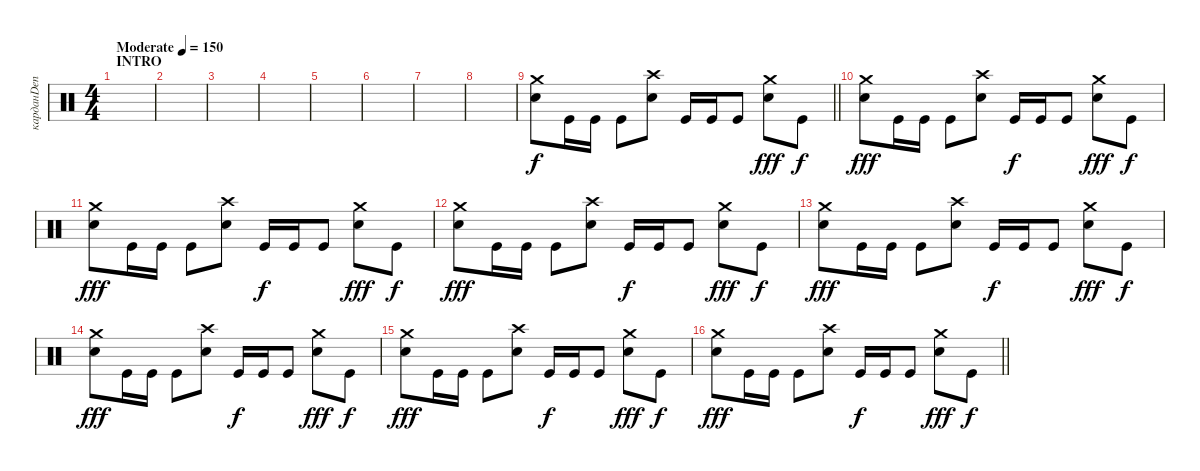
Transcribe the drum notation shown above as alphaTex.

\track ("карданDen" "карданDen") {instrument percussion}
\staff {score}
\articulation defaults
\ts (4 4)
\section ("" "INTRO")
\tempo (150 "Moderate")
\clef neutral
\ks c
|
|
|
|
|
|
|
|
\barLineRight lightlight
("Crash medium (hit)" "Electric Snare (hit)").8 "Kick (hit)".16 "Kick (hit)".16 "Kick (hit)".8 ("Crash high (hit)" "Electric Snare (hit)").8 "Kick (hit)".16{dy f} "Kick (hit)".16 "Kick (hit)".8 ("Crash medium (hit)" "Electric Snare (hit)").8{dy fff} "Kick (hit)".8{dy f} |
("Crash medium (hit)" "Electric Snare (hit)").8{dy fff} "Kick (hit)".16 "Kick (hit)".16 "Kick (hit)".8 ("Crash high (hit)" "Electric Snare (hit)").8 "Kick (hit)".16{dy f} "Kick (hit)".16 "Kick (hit)".8 ("Crash medium (hit)" "Electric Snare (hit)").8{dy fff} "Kick (hit)".8{dy f} |
("Crash medium (hit)" "Electric Snare (hit)").8{dy fff} "Kick (hit)".16 "Kick (hit)".16 "Kick (hit)".8 ("Crash high (hit)" "Electric Snare (hit)").8 "Kick (hit)".16{dy f} "Kick (hit)".16 "Kick (hit)".8 ("Crash medium (hit)" "Electric Snare (hit)").8{dy fff} "Kick (hit)".8{dy f} |
("Crash medium (hit)" "Electric Snare (hit)").8{dy fff} "Kick (hit)".16 "Kick (hit)".16 "Kick (hit)".8 ("Crash high (hit)" "Electric Snare (hit)").8 "Kick (hit)".16{dy f} "Kick (hit)".16 "Kick (hit)".8 ("Crash medium (hit)" "Electric Snare (hit)").8{dy fff} "Kick (hit)".8{dy f} |
("Crash medium (hit)" "Electric Snare (hit)").8{dy fff} "Kick (hit)".16 "Kick (hit)".16 "Kick (hit)".8 ("Crash high (hit)" "Electric Snare (hit)").8 "Kick (hit)".16{dy f} "Kick (hit)".16 "Kick (hit)".8 ("Crash medium (hit)" "Electric Snare (hit)").8{dy fff} "Kick (hit)".8{dy f} |
("Crash medium (hit)" "Electric Snare (hit)").8{dy fff} "Kick (hit)".16 "Kick (hit)".16 "Kick (hit)".8 ("Crash high (hit)" "Electric Snare (hit)").8 "Kick (hit)".16{dy f} "Kick (hit)".16 "Kick (hit)".8 ("Crash medium (hit)" "Electric Snare (hit)").8{dy fff} "Kick (hit)".8{dy f} |
("Crash medium (hit)" "Electric Snare (hit)").8{dy fff} "Kick (hit)".16 "Kick (hit)".16 "Kick (hit)".8 ("Crash high (hit)" "Electric Snare (hit)").8 "Kick (hit)".16{dy f} "Kick (hit)".16 "Kick (hit)".8 ("Crash medium (hit)" "Electric Snare (hit)").8{dy fff} "Kick (hit)".8{dy f} |
\barLineRight lightlight
("Crash medium (hit)" "Electric Snare (hit)").8{dy fff} "Kick (hit)".16 "Kick (hit)".16 "Kick (hit)".8 ("Crash high (hit)" "Electric Snare (hit)").8 "Kick (hit)".16{dy f} "Kick (hit)".16 "Kick (hit)".8 ("Crash medium (hit)" "Electric Snare (hit)").8{dy fff} "Kick (hit)".8{dy f}
